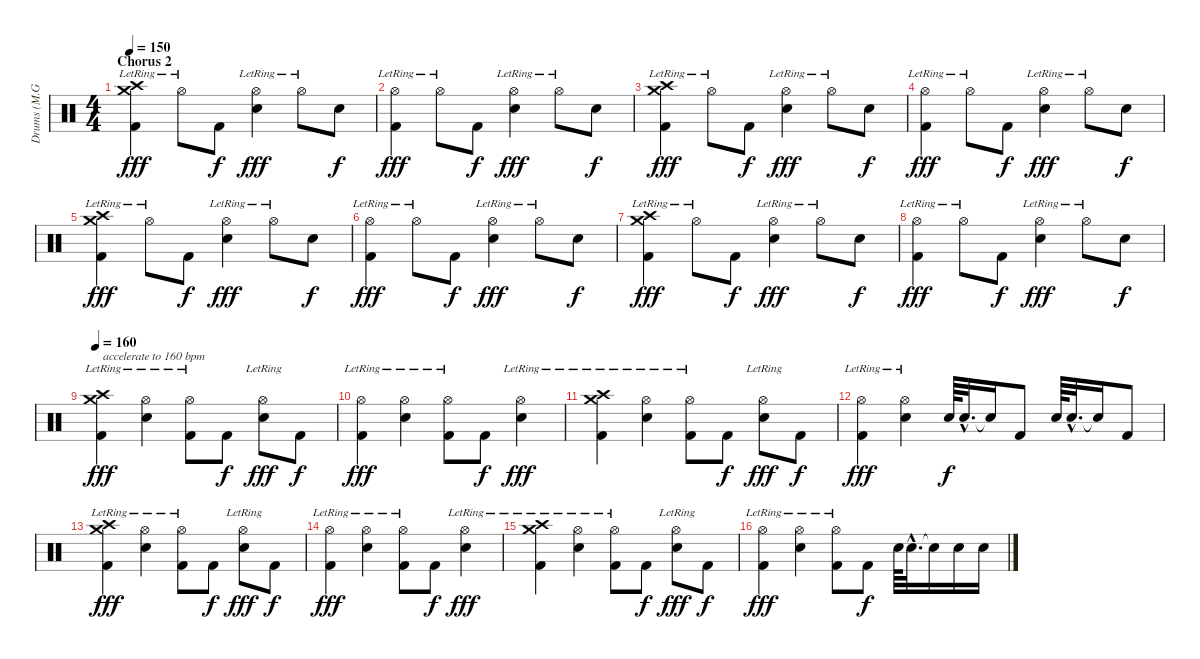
\track ("Drums (M.Großkopf)" "Drums (M.G") {instrument percussion}
\staff {score}
\articulation defaults
\ts (4 4)
\section ("" "Chorus 2")
\tempo 150
\clef neutral
\ks c
("Crash high (hit)"{lr} "Crash medium (hit)"{lr} "Kick (hit) 2").4{dy fff} "Hi-Hat (open)"{lr}.8 "Kick (hit) 2".8{dy f} ("Hi-Hat (open)"{lr} "Electric Snare (hit)").4{dy fff} "Hi-Hat (open)"{lr}.8 "Electric Snare (hit)".8{dy f} |
("Hi-Hat (open)"{lr} "Kick (hit) 2").4{dy fff} "Hi-Hat (open)"{lr}.8 "Kick (hit) 2".8{dy f} ("Hi-Hat (open)"{lr} "Electric Snare (hit)").4{dy fff} "Hi-Hat (open)"{lr}.8 "Electric Snare (hit)".8{dy f} |
("Crash high (hit)"{lr} "Crash medium (hit)"{lr} "Kick (hit) 2").4{dy fff} "Hi-Hat (open)"{lr}.8 "Kick (hit) 2".8{dy f} ("Hi-Hat (open)"{lr} "Electric Snare (hit)").4{dy fff} "Hi-Hat (open)"{lr}.8 "Electric Snare (hit)".8{dy f} |
("Hi-Hat (open)"{lr} "Kick (hit) 2").4{dy fff} "Hi-Hat (open)"{lr}.8 "Kick (hit) 2".8{dy f} ("Hi-Hat (open)"{lr} "Electric Snare (hit)").4{dy fff} "Hi-Hat (open)"{lr}.8 "Electric Snare (hit)".8{dy f} |
("Crash high (hit)"{lr} "Crash medium (hit)"{lr} "Kick (hit) 2").4{dy fff} "Hi-Hat (open)"{lr}.8 "Kick (hit) 2".8{dy f} ("Hi-Hat (open)"{lr} "Electric Snare (hit)").4{dy fff} "Hi-Hat (open)"{lr}.8 "Electric Snare (hit)".8{dy f} |
("Hi-Hat (open)"{lr} "Kick (hit) 2").4{dy fff} "Hi-Hat (open)"{lr}.8 "Kick (hit) 2".8{dy f} ("Hi-Hat (open)"{lr} "Electric Snare (hit)").4{dy fff} "Hi-Hat (open)"{lr}.8 "Electric Snare (hit)".8{dy f} |
("Crash high (hit)"{lr} "Crash medium (hit)"{lr} "Kick (hit) 2").4{dy fff} "Hi-Hat (open)"{lr}.8 "Kick (hit) 2".8{dy f} ("Hi-Hat (open)"{lr} "Electric Snare (hit)").4{dy fff} "Hi-Hat (open)"{lr}.8 "Electric Snare (hit)".8{dy f} |
("Hi-Hat (open)"{lr} "Kick (hit) 2").4{dy fff} "Hi-Hat (open)"{lr}.8 "Kick (hit) 2".8{dy f} ("Hi-Hat (open)"{lr} "Electric Snare (hit)").4{dy fff} "Hi-Hat (open)"{lr}.8 "Electric Snare (hit)".8{dy f} |
\tempo 160
("Crash high (hit)"{lr} "Crash medium (hit)"{lr} "Kick (hit) 2").4{txt "accelerate to 160 bpm" dy fff} ("Hi-Hat (open)"{lr} "Electric Snare (hit)").4 ("Hi-Hat (open)"{lr} "Kick (hit) 2").8 "Kick (hit) 2".8{dy f} ("Hi-Hat (open)"{lr} "Electric Snare (hit)").8{dy fff} "Kick (hit) 2".8{dy f} |
("Hi-Hat (open)"{lr} "Kick (hit) 2").4{dy fff} ("Hi-Hat (open)"{lr} "Electric Snare (hit)").4 ("Hi-Hat (open)"{lr} "Kick (hit) 2").8 "Kick (hit) 2".8{dy f} ("Hi-Hat (open)"{lr} "Electric Snare (hit)").4{dy fff} |
("Crash high (hit)"{lr} "Crash medium (hit)"{lr} "Kick (hit) 2").4 ("Hi-Hat (open)"{lr} "Electric Snare (hit)").4 ("Hi-Hat (open)"{lr} "Kick (hit) 2").8 "Kick (hit) 2".8{dy f} ("Hi-Hat (open)"{lr} "Electric Snare (hit)").8{dy fff} "Kick (hit) 2".8{dy f} |
("Hi-Hat (open)"{lr} "Kick (hit) 2").4{dy fff} ("Hi-Hat (open)"{lr} "Electric Snare (hit)").4 "Electric Snare (hit)".64{dy f} "Electric Snare (hit)"{hac}.32{d} "Snare (hit)"{t}.16 "Kick (hit) 2".8 "Electric Snare (hit)".64 "Electric Snare (hit)"{hac}.32{d} "Snare (hit)"{t}.16 "Kick (hit) 2".8 |
("Crash high (hit)"{lr} "Crash medium (hit)"{lr} "Kick (hit) 2").4{dy fff} ("Hi-Hat (open)"{lr} "Electric Snare (hit)").4 ("Hi-Hat (open)"{lr} "Kick (hit) 2").8 "Kick (hit) 2".8{dy f} ("Hi-Hat (open)"{lr} "Electric Snare (hit)").8{dy fff} "Kick (hit) 2".8{dy f} |
("Hi-Hat (open)"{lr} "Kick (hit) 2").4{dy fff} ("Hi-Hat (open)"{lr} "Electric Snare (hit)").4 ("Hi-Hat (open)"{lr} "Kick (hit) 2").8 "Kick (hit) 2".8{dy f} ("Hi-Hat (open)"{lr} "Electric Snare (hit)").4{dy fff} |
("Crash high (hit)"{lr} "Crash medium (hit)"{lr} "Kick (hit) 2").4 ("Hi-Hat (open)"{lr} "Electric Snare (hit)").4 ("Hi-Hat (open)"{lr} "Kick (hit) 2").8 "Kick (hit) 2".8{dy f} ("Hi-Hat (open)"{lr} "Electric Snare (hit)").8{dy fff} "Kick (hit) 2".8{dy f} |
("Hi-Hat (open)"{lr} "Kick (hit) 2").4{dy fff} ("Hi-Hat (open)"{lr} "Electric Snare (hit)").4 ("Hi-Hat (open)"{lr} "Kick (hit) 2").8 "Kick (hit) 2".8{dy f} "Electric Snare (hit)".64 "Electric Snare (hit)"{hac}.32{d} "Snare (hit)"{t}.16 "Electric Snare (hit)".16 "Electric Snare (hit)".16
